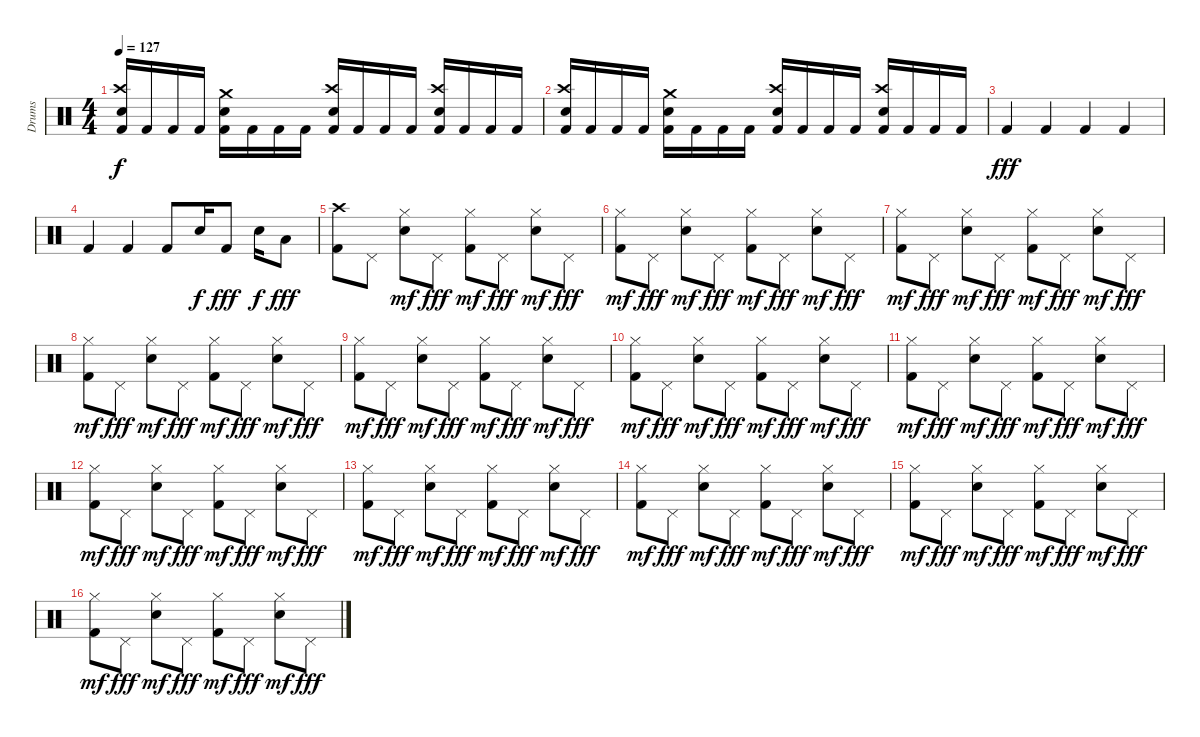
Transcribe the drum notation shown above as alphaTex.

\track ("Drums" "Drums") {instrument percussion}
\staff {score}
\articulation defaults
\ts (4 4)
\tempo 127
\clef neutral
\ks c
("Kick (hit) 2" "Crash high (hit)" "Electric Snare (hit)").16{dy f} "Kick (hit) 2".16 "Kick (hit) 2".16 "Kick (hit) 2".16 ("Kick (hit) 2" "Crash medium (hit)" "Electric Snare (hit)").16 "Kick (hit) 2".16 "Kick (hit) 2".16 "Kick (hit) 2".16 ("Kick (hit) 2" "Crash high (hit)" "Electric Snare (hit)").16 "Kick (hit) 2".16 "Kick (hit) 2".16 "Kick (hit) 2".16 ("Kick (hit) 2" "Crash high (hit)" "Electric Snare (hit)").16 "Kick (hit) 2".16 "Kick (hit) 2".16 "Kick (hit) 2".16 |
("Kick (hit) 2" "Crash high (hit)" "Electric Snare (hit)").16 "Kick (hit) 2".16 "Kick (hit) 2".16 "Kick (hit) 2".16 ("Kick (hit) 2" "Crash medium (hit)" "Electric Snare (hit)").16 "Kick (hit) 2".16 "Kick (hit) 2".16 "Kick (hit) 2".16 ("Kick (hit) 2" "Crash high (hit)" "Electric Snare (hit)").16 "Kick (hit) 2".16 "Kick (hit) 2".16 "Kick (hit) 2".16 ("Kick (hit) 2" "Crash high (hit)" "Electric Snare (hit)").16 "Kick (hit) 2".16 "Kick (hit) 2".16 "Kick (hit) 2".16 |
"Kick (hit) 2".4{dy fff} "Kick (hit) 2".4 "Kick (hit) 2".4 "Kick (hit) 2".4 |
"Kick (hit) 2".4 "Kick (hit) 2".4 "Kick (hit) 2".8 "Electric Snare (hit)".16{dy f} "Kick (hit) 2".8{dy fff} "Electric Snare (hit)".16{dy f} "Low Floor Tom (hit)".8{dy fff} |
("Kick (hit) 2" "Crash high (hit)").8 "Pedal Hi-Hat (hit)".8 ("Hi-Hat (closed)" "Electric Snare (hit)").8{dy mf} "Pedal Hi-Hat (hit)".8{dy fff} ("Kick (hit) 2" "Hi-Hat (closed)").8{dy mf} "Pedal Hi-Hat (hit)".8{dy fff} ("Hi-Hat (closed)" "Electric Snare (hit)").8{dy mf} "Pedal Hi-Hat (hit)".8{dy fff} |
("Kick (hit) 2" "Hi-Hat (closed)").8{dy mf} "Pedal Hi-Hat (hit)".8{dy fff} ("Hi-Hat (closed)" "Electric Snare (hit)").8{dy mf} "Pedal Hi-Hat (hit)".8{dy fff} ("Kick (hit) 2" "Hi-Hat (closed)").8{dy mf} "Pedal Hi-Hat (hit)".8{dy fff} ("Hi-Hat (closed)" "Electric Snare (hit)").8{dy mf} "Pedal Hi-Hat (hit)".8{dy fff} |
("Kick (hit) 2" "Hi-Hat (closed)").8{dy mf} "Pedal Hi-Hat (hit)".8{dy fff} ("Hi-Hat (closed)" "Electric Snare (hit)").8{dy mf} "Pedal Hi-Hat (hit)".8{dy fff} ("Kick (hit) 2" "Hi-Hat (closed)").8{dy mf} "Pedal Hi-Hat (hit)".8{dy fff} ("Hi-Hat (closed)" "Electric Snare (hit)").8{dy mf} "Pedal Hi-Hat (hit)".8{dy fff} |
("Kick (hit) 2" "Hi-Hat (closed)").8{dy mf} "Pedal Hi-Hat (hit)".8{dy fff} ("Hi-Hat (closed)" "Electric Snare (hit)").8{dy mf} "Pedal Hi-Hat (hit)".8{dy fff} ("Kick (hit) 2" "Hi-Hat (closed)").8{dy mf} "Pedal Hi-Hat (hit)".8{dy fff} ("Hi-Hat (closed)" "Electric Snare (hit)").8{dy mf} "Pedal Hi-Hat (hit)".8{dy fff} |
("Kick (hit) 2" "Hi-Hat (closed)").8{dy mf} "Pedal Hi-Hat (hit)".8{dy fff} ("Hi-Hat (closed)" "Electric Snare (hit)").8{dy mf} "Pedal Hi-Hat (hit)".8{dy fff} ("Kick (hit) 2" "Hi-Hat (closed)").8{dy mf} "Pedal Hi-Hat (hit)".8{dy fff} ("Hi-Hat (closed)" "Electric Snare (hit)").8{dy mf} "Pedal Hi-Hat (hit)".8{dy fff} |
("Kick (hit) 2" "Hi-Hat (closed)").8{dy mf} "Pedal Hi-Hat (hit)".8{dy fff} ("Hi-Hat (closed)" "Electric Snare (hit)").8{dy mf} "Pedal Hi-Hat (hit)".8{dy fff} ("Kick (hit) 2" "Hi-Hat (closed)").8{dy mf} "Pedal Hi-Hat (hit)".8{dy fff} ("Hi-Hat (closed)" "Electric Snare (hit)").8{dy mf} "Pedal Hi-Hat (hit)".8{dy fff} |
("Kick (hit) 2" "Hi-Hat (closed)").8{dy mf} "Pedal Hi-Hat (hit)".8{dy fff} ("Hi-Hat (closed)" "Electric Snare (hit)").8{dy mf} "Pedal Hi-Hat (hit)".8{dy fff} ("Kick (hit) 2" "Hi-Hat (closed)").8{dy mf} "Pedal Hi-Hat (hit)".8{dy fff} ("Hi-Hat (closed)" "Electric Snare (hit)").8{dy mf} "Pedal Hi-Hat (hit)".8{dy fff} |
("Kick (hit) 2" "Hi-Hat (closed)").8{dy mf} "Pedal Hi-Hat (hit)".8{dy fff} ("Hi-Hat (closed)" "Electric Snare (hit)").8{dy mf} "Pedal Hi-Hat (hit)".8{dy fff} ("Kick (hit) 2" "Hi-Hat (closed)").8{dy mf} "Pedal Hi-Hat (hit)".8{dy fff} ("Hi-Hat (closed)" "Electric Snare (hit)").8{dy mf} "Pedal Hi-Hat (hit)".8{dy fff} |
("Kick (hit) 2" "Hi-Hat (closed)").8{dy mf} "Pedal Hi-Hat (hit)".8{dy fff} ("Hi-Hat (closed)" "Electric Snare (hit)").8{dy mf} "Pedal Hi-Hat (hit)".8{dy fff} ("Kick (hit) 2" "Hi-Hat (closed)").8{dy mf} "Pedal Hi-Hat (hit)".8{dy fff} ("Hi-Hat (closed)" "Electric Snare (hit)").8{dy mf} "Pedal Hi-Hat (hit)".8{dy fff} |
("Kick (hit) 2" "Hi-Hat (closed)").8{dy mf} "Pedal Hi-Hat (hit)".8{dy fff} ("Hi-Hat (closed)" "Electric Snare (hit)").8{dy mf} "Pedal Hi-Hat (hit)".8{dy fff} ("Kick (hit) 2" "Hi-Hat (closed)").8{dy mf} "Pedal Hi-Hat (hit)".8{dy fff} ("Hi-Hat (closed)" "Electric Snare (hit)").8{dy mf} "Pedal Hi-Hat (hit)".8{dy fff} |
("Kick (hit) 2" "Hi-Hat (closed)").8{dy mf} "Pedal Hi-Hat (hit)".8{dy fff} ("Hi-Hat (closed)" "Electric Snare (hit)").8{dy mf} "Pedal Hi-Hat (hit)".8{dy fff} ("Kick (hit) 2" "Hi-Hat (closed)").8{dy mf} "Pedal Hi-Hat (hit)".8{dy fff} ("Hi-Hat (closed)" "Electric Snare (hit)").8{dy mf} "Pedal Hi-Hat (hit)".8{dy fff} |
("Kick (hit) 2" "Hi-Hat (closed)").8{dy mf} "Pedal Hi-Hat (hit)".8{dy fff} ("Hi-Hat (closed)" "Electric Snare (hit)").8{dy mf} "Pedal Hi-Hat (hit)".8{dy fff} ("Kick (hit) 2" "Hi-Hat (closed)").8{dy mf} "Pedal Hi-Hat (hit)".8{dy fff} ("Hi-Hat (closed)" "Electric Snare (hit)").8{dy mf} "Pedal Hi-Hat (hit)".8{dy fff}
